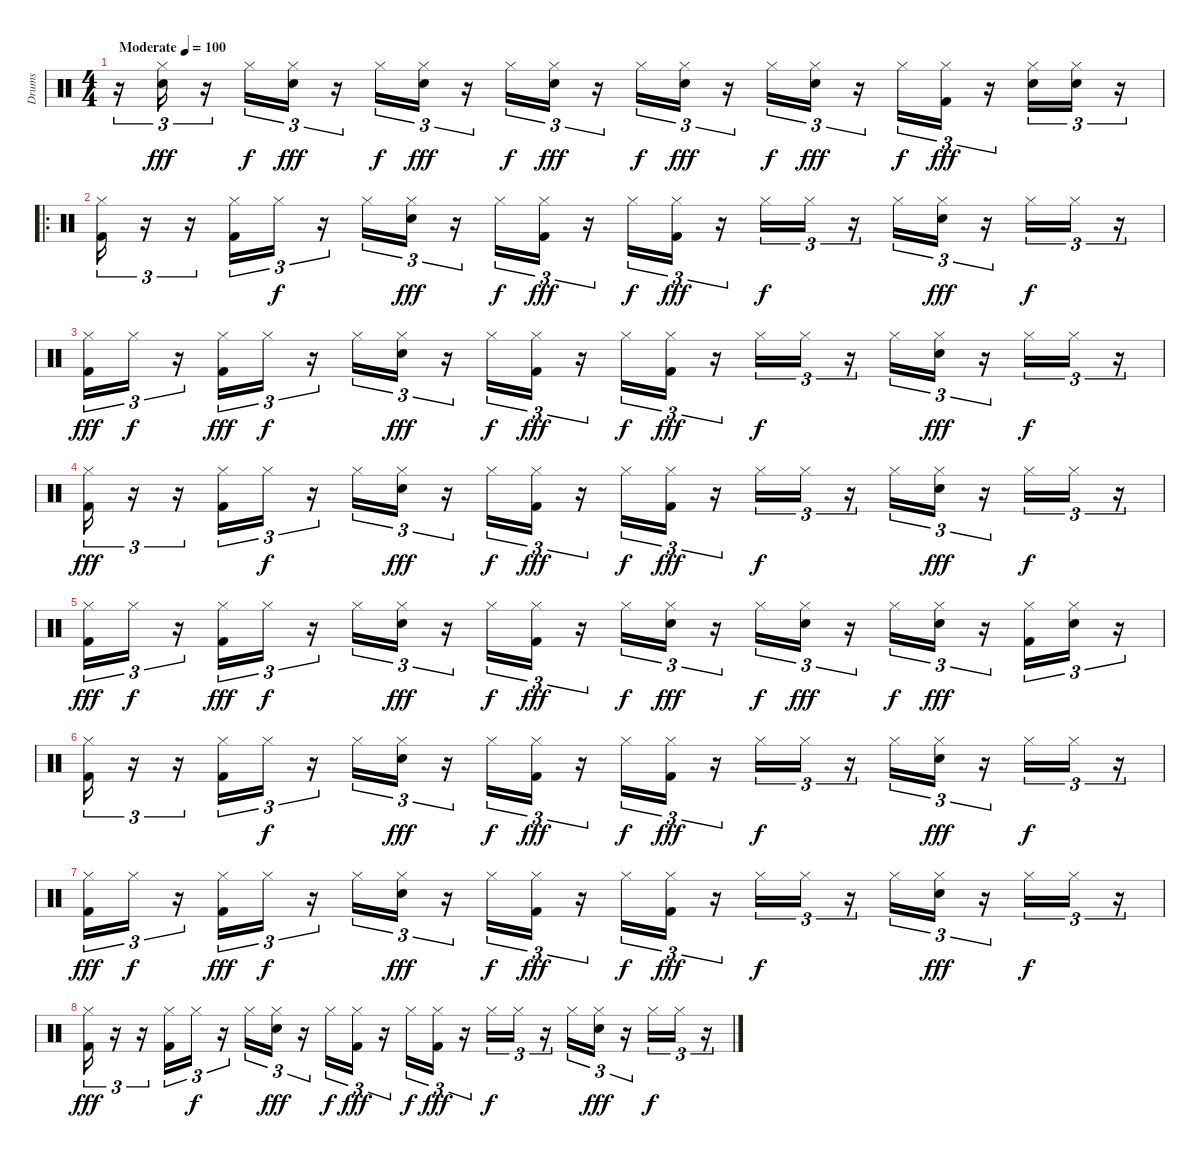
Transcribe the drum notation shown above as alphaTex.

\track ("Drums" "Drums") {instrument percussion}
\staff {score}
\articulation defaults
\ts (4 4)
\tempo (100 "Moderate")
\clef neutral
\ks c
r.16{tu (3 2) dy fff} ("Hi-Hat (closed)" "Snare (hit) 2").16{tu (3 2)} r.16{tu (3 2)} "Hi-Hat (closed)".16{tu (3 2) dy f} ("Hi-Hat (closed)" "Snare (hit) 2").16{tu (3 2) dy fff} r.16{tu (3 2)} "Hi-Hat (closed)".16{tu (3 2) dy f} ("Hi-Hat (closed)" "Snare (hit) 2").16{tu (3 2) dy fff} r.16{tu (3 2)} "Hi-Hat (closed)".16{tu (3 2) dy f} ("Hi-Hat (closed)" "Snare (hit) 2").16{tu (3 2) dy fff} r.16{tu (3 2)} "Hi-Hat (closed)".16{tu (3 2) dy f} ("Hi-Hat (closed)" "Snare (hit) 2").16{tu (3 2) dy fff} r.16{tu (3 2)} "Hi-Hat (closed)".16{tu (3 2) dy f} ("Hi-Hat (closed)" "Snare (hit) 2").16{tu (3 2) dy fff} r.16{tu (3 2)} "Hi-Hat (closed)".16{tu (3 2) dy f} ("Hi-Hat (closed)" "Kick (hit) 2").16{tu (3 2) dy fff} r.16{tu (3 2)} ("Hi-Hat (closed)" "Snare (hit) 2").16{tu (3 2)} ("Hi-Hat (closed)" "Snare (hit) 2").16{tu (3 2)} r.16{tu (3 2)} |
\ro
("Hi-Hat (closed)" "Kick (hit) 2").16{tu (3 2)} r.16{tu (3 2)} r.16{tu (3 2)} ("Hi-Hat (closed)" "Kick (hit) 2").16{tu (3 2)} "Hi-Hat (closed)".16{tu (3 2) dy f} r.16{tu (3 2)} "Hi-Hat (closed)".16{tu (3 2)} ("Hi-Hat (closed)" "Snare (hit) 2").16{tu (3 2) dy fff} r.16{tu (3 2)} "Hi-Hat (closed)".16{tu (3 2) dy f} ("Hi-Hat (closed)" "Kick (hit) 2").16{tu (3 2) dy fff} r.16{tu (3 2)} "Hi-Hat (closed)".16{tu (3 2) dy f} ("Hi-Hat (closed)" "Kick (hit) 2").16{tu (3 2) dy fff} r.16{tu (3 2)} "Hi-Hat (closed)".16{tu (3 2) dy f} "Hi-Hat (closed)".16{tu (3 2)} r.16{tu (3 2)} "Hi-Hat (closed)".16{tu (3 2)} ("Hi-Hat (closed)" "Snare (hit) 2").16{tu (3 2) dy fff} r.16{tu (3 2)} "Hi-Hat (closed)".16{tu (3 2) dy f} "Hi-Hat (closed)".16{tu (3 2)} r.16{tu (3 2)} |
("Hi-Hat (closed)" "Kick (hit) 2").16{tu (3 2) dy fff} "Hi-Hat (closed)".16{tu (3 2) dy f} r.16{tu (3 2)} ("Hi-Hat (closed)" "Kick (hit) 2").16{tu (3 2) dy fff} "Hi-Hat (closed)".16{tu (3 2) dy f} r.16{tu (3 2)} "Hi-Hat (closed)".16{tu (3 2)} ("Hi-Hat (closed)" "Snare (hit) 2").16{tu (3 2) dy fff} r.16{tu (3 2)} "Hi-Hat (closed)".16{tu (3 2) dy f} ("Hi-Hat (closed)" "Kick (hit) 2").16{tu (3 2) dy fff} r.16{tu (3 2)} "Hi-Hat (closed)".16{tu (3 2) dy f} ("Hi-Hat (closed)" "Kick (hit) 2").16{tu (3 2) dy fff} r.16{tu (3 2)} "Hi-Hat (closed)".16{tu (3 2) dy f} "Hi-Hat (closed)".16{tu (3 2)} r.16{tu (3 2)} "Hi-Hat (closed)".16{tu (3 2)} ("Hi-Hat (closed)" "Snare (hit) 2").16{tu (3 2) dy fff} r.16{tu (3 2)} "Hi-Hat (closed)".16{tu (3 2) dy f} "Hi-Hat (closed)".16{tu (3 2)} r.16{tu (3 2)} |
("Hi-Hat (closed)" "Kick (hit) 2").16{tu (3 2) dy fff} r.16{tu (3 2)} r.16{tu (3 2)} ("Hi-Hat (closed)" "Kick (hit) 2").16{tu (3 2)} "Hi-Hat (closed)".16{tu (3 2) dy f} r.16{tu (3 2)} "Hi-Hat (closed)".16{tu (3 2)} ("Hi-Hat (closed)" "Snare (hit) 2").16{tu (3 2) dy fff} r.16{tu (3 2)} "Hi-Hat (closed)".16{tu (3 2) dy f} ("Hi-Hat (closed)" "Kick (hit) 2").16{tu (3 2) dy fff} r.16{tu (3 2)} "Hi-Hat (closed)".16{tu (3 2) dy f} ("Hi-Hat (closed)" "Kick (hit) 2").16{tu (3 2) dy fff} r.16{tu (3 2)} "Hi-Hat (closed)".16{tu (3 2) dy f} "Hi-Hat (closed)".16{tu (3 2)} r.16{tu (3 2)} "Hi-Hat (closed)".16{tu (3 2)} ("Hi-Hat (closed)" "Snare (hit) 2").16{tu (3 2) dy fff} r.16{tu (3 2)} "Hi-Hat (closed)".16{tu (3 2) dy f} "Hi-Hat (closed)".16{tu (3 2)} r.16{tu (3 2)} |
("Hi-Hat (closed)" "Kick (hit) 2").16{tu (3 2) dy fff} "Hi-Hat (closed)".16{tu (3 2) dy f} r.16{tu (3 2)} ("Hi-Hat (closed)" "Kick (hit) 2").16{tu (3 2) dy fff} "Hi-Hat (closed)".16{tu (3 2) dy f} r.16{tu (3 2)} "Hi-Hat (closed)".16{tu (3 2)} ("Hi-Hat (closed)" "Snare (hit) 2").16{tu (3 2) dy fff} r.16{tu (3 2)} "Hi-Hat (closed)".16{tu (3 2) dy f} ("Hi-Hat (closed)" "Kick (hit) 2").16{tu (3 2) dy fff} r.16{tu (3 2)} "Hi-Hat (closed)".16{tu (3 2) dy f} ("Hi-Hat (closed)" "Snare (hit) 2").16{tu (3 2) dy fff} r.16{tu (3 2)} "Hi-Hat (closed)".16{tu (3 2) dy f} ("Hi-Hat (closed)" "Snare (hit) 2").16{tu (3 2) dy fff} r.16{tu (3 2)} "Hi-Hat (closed)".16{tu (3 2) dy f} ("Hi-Hat (closed)" "Snare (hit) 2").16{tu (3 2) dy fff} r.16{tu (3 2)} ("Hi-Hat (closed)" "Kick (hit) 2").16{tu (3 2)} ("Hi-Hat (closed)" "Snare (hit) 2").16{tu (3 2)} r.16{tu (3 2)} |
("Hi-Hat (closed)" "Kick (hit) 2").16{tu (3 2)} r.16{tu (3 2)} r.16{tu (3 2)} ("Hi-Hat (closed)" "Kick (hit) 2").16{tu (3 2)} "Hi-Hat (closed)".16{tu (3 2) dy f} r.16{tu (3 2)} "Hi-Hat (closed)".16{tu (3 2)} ("Hi-Hat (closed)" "Snare (hit) 2").16{tu (3 2) dy fff} r.16{tu (3 2)} "Hi-Hat (closed)".16{tu (3 2) dy f} ("Hi-Hat (closed)" "Kick (hit) 2").16{tu (3 2) dy fff} r.16{tu (3 2)} "Hi-Hat (closed)".16{tu (3 2) dy f} ("Hi-Hat (closed)" "Kick (hit) 2").16{tu (3 2) dy fff} r.16{tu (3 2)} "Hi-Hat (closed)".16{tu (3 2) dy f} "Hi-Hat (closed)".16{tu (3 2)} r.16{tu (3 2)} "Hi-Hat (closed)".16{tu (3 2)} ("Hi-Hat (closed)" "Snare (hit) 2").16{tu (3 2) dy fff} r.16{tu (3 2)} "Hi-Hat (closed)".16{tu (3 2) dy f} "Hi-Hat (closed)".16{tu (3 2)} r.16{tu (3 2)} |
("Hi-Hat (closed)" "Kick (hit) 2").16{tu (3 2) dy fff} "Hi-Hat (closed)".16{tu (3 2) dy f} r.16{tu (3 2)} ("Hi-Hat (closed)" "Kick (hit) 2").16{tu (3 2) dy fff} "Hi-Hat (closed)".16{tu (3 2) dy f} r.16{tu (3 2)} "Hi-Hat (closed)".16{tu (3 2)} ("Hi-Hat (closed)" "Snare (hit) 2").16{tu (3 2) dy fff} r.16{tu (3 2)} "Hi-Hat (closed)".16{tu (3 2) dy f} ("Hi-Hat (closed)" "Kick (hit) 2").16{tu (3 2) dy fff} r.16{tu (3 2)} "Hi-Hat (closed)".16{tu (3 2) dy f} ("Hi-Hat (closed)" "Kick (hit) 2").16{tu (3 2) dy fff} r.16{tu (3 2)} "Hi-Hat (closed)".16{tu (3 2) dy f} "Hi-Hat (closed)".16{tu (3 2)} r.16{tu (3 2)} "Hi-Hat (closed)".16{tu (3 2)} ("Hi-Hat (closed)" "Snare (hit) 2").16{tu (3 2) dy fff} r.16{tu (3 2)} "Hi-Hat (closed)".16{tu (3 2) dy f} "Hi-Hat (closed)".16{tu (3 2)} r.16{tu (3 2)} |
("Hi-Hat (closed)" "Kick (hit) 2").16{tu (3 2) dy fff} r.16{tu (3 2)} r.16{tu (3 2)} ("Hi-Hat (closed)" "Kick (hit) 2").16{tu (3 2)} "Hi-Hat (closed)".16{tu (3 2) dy f} r.16{tu (3 2)} "Hi-Hat (closed)".16{tu (3 2)} ("Hi-Hat (closed)" "Snare (hit) 2").16{tu (3 2) dy fff} r.16{tu (3 2)} "Hi-Hat (closed)".16{tu (3 2) dy f} ("Hi-Hat (closed)" "Kick (hit) 2").16{tu (3 2) dy fff} r.16{tu (3 2)} "Hi-Hat (closed)".16{tu (3 2) dy f} ("Hi-Hat (closed)" "Kick (hit) 2").16{tu (3 2) dy fff} r.16{tu (3 2)} "Hi-Hat (closed)".16{tu (3 2) dy f} "Hi-Hat (closed)".16{tu (3 2)} r.16{tu (3 2)} "Hi-Hat (closed)".16{tu (3 2)} ("Hi-Hat (closed)" "Snare (hit) 2").16{tu (3 2) dy fff} r.16{tu (3 2)} "Hi-Hat (closed)".16{tu (3 2) dy f} "Hi-Hat (closed)".16{tu (3 2)} r.16{tu (3 2)}
